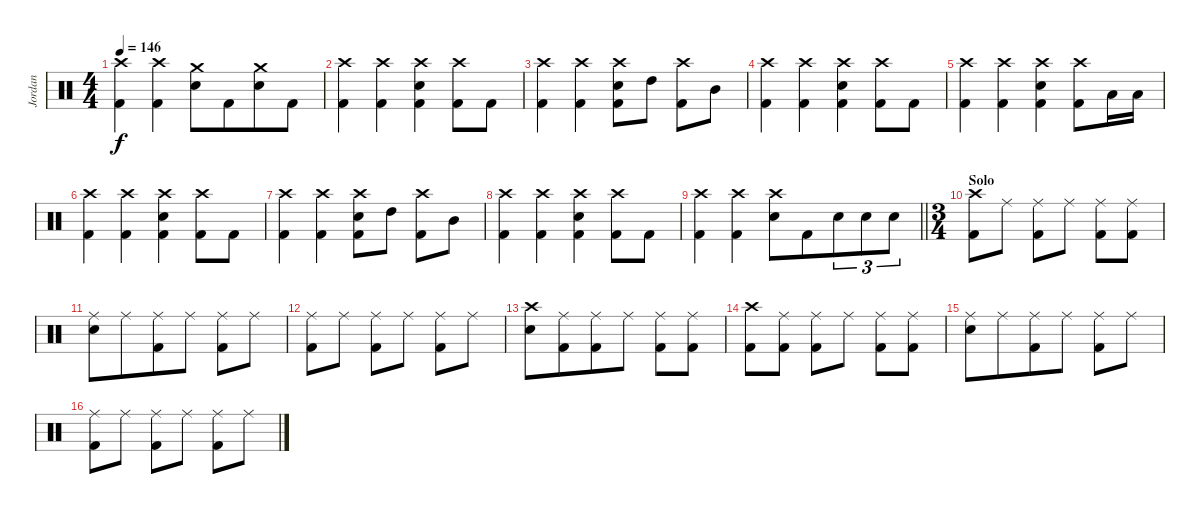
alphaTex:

\track ("Jordan" "Jordan") {instrument percussion}
\staff {score}
\articulation defaults
\ts (4 4)
\tempo 146
\clef neutral
\ks c
("Crash high (hit)" "Kick (hit) 2").4{dy f} ("Crash high (hit)" "Kick (hit) 2").4{beam merge} ("Crash medium (hit)" "Snare (hit) 2").8{beam merge} "Kick (hit) 2".8{beam merge} ("Crash medium (hit)" "Snare (hit) 2").8{beam merge} "Kick (hit) 2".8 |
("Crash high (hit)" "Kick (hit) 2").4 ("Crash high (hit)" "Kick (hit) 2").4{beam merge} ("Crash high (hit)" "Snare (hit) 2" "Kick (hit) 2").4 ("Crash high (hit)" "Kick (hit) 2").8{beam merge} "Kick (hit) 2".8 |
("Crash high (hit)" "Kick (hit) 2").4 ("Crash high (hit)" "Kick (hit) 2").4{beam merge} ("Crash high (hit)" "Snare (hit) 2" "Kick (hit) 2").8 "High Tom (hit)".8 ("Crash high (hit)" "Kick (hit) 2").8{beam merge} "Mid Tom (hit)".8 |
("Crash high (hit)" "Kick (hit) 2").4 ("Crash high (hit)" "Kick (hit) 2").4{beam merge} ("Crash high (hit)" "Snare (hit) 2" "Kick (hit) 2").4 ("Crash high (hit)" "Kick (hit) 2").8{beam merge} "Kick (hit) 2".8 |
("Crash high (hit)" "Kick (hit) 2").4 ("Crash high (hit)" "Kick (hit) 2").4{beam merge} ("Crash high (hit)" "Snare (hit) 2" "Kick (hit) 2").4 ("Crash high (hit)" "Kick (hit) 2").8 "Low Tom (hit)".16 "Low Tom (hit)".16 |
("Crash high (hit)" "Kick (hit) 2").4 ("Crash high (hit)" "Kick (hit) 2").4{beam merge} ("Crash high (hit)" "Snare (hit) 2" "Kick (hit) 2").4 ("Crash high (hit)" "Kick (hit) 2").8{beam merge} "Kick (hit) 2".8 |
("Crash high (hit)" "Kick (hit) 2").4 ("Crash high (hit)" "Kick (hit) 2").4{beam merge} ("Crash high (hit)" "Snare (hit) 2" "Kick (hit) 2").8 "High Tom (hit)".8 ("Crash high (hit)" "Kick (hit) 2").8{beam merge} "Mid Tom (hit)".8 |
("Crash high (hit)" "Kick (hit) 2").4 ("Crash high (hit)" "Kick (hit) 2").4{beam merge} ("Crash high (hit)" "Snare (hit) 2" "Kick (hit) 2").4 ("Crash high (hit)" "Kick (hit) 2").8{beam merge} "Kick (hit) 2".8 |
\barLineRight lightlight
("Crash high (hit)" "Kick (hit) 2").4 ("Crash high (hit)" "Kick (hit) 2").4{beam merge} ("Crash high (hit)" "Snare (hit) 2").8{beam merge} "Kick (hit) 2".8{beam merge} "Snare (hit) 2".8{tu (3 2)} "Snare (hit) 2".8{tu (3 2) beam merge} "Snare (hit) 2".8{tu (3 2)} |
\ts (3 4)
\section ("" "Solo")
("Crash high (hit)" "Kick (hit) 2").8{beam merge} "Ride (middle)".8 ("Ride (middle)" "Kick (hit) 2").8 "Ride (middle)".8 ("Ride (middle)" "Kick (hit) 2").8{beam merge} ("Ride (middle)" "Kick (hit) 2").8 |
("Snare (hit) 2" "Ride (middle)").8{beam merge} "Ride (middle)".8{beam merge} ("Ride (middle)" "Kick (hit) 2").8 "Ride (middle)".8 ("Ride (middle)" "Kick (hit) 2").8{beam merge} "Ride (middle)".8 |
("Ride (middle)" "Kick (hit) 2").8{beam merge} "Ride (middle)".8 ("Ride (middle)" "Kick (hit) 2").8 "Ride (middle)".8 ("Ride (middle)" "Kick (hit) 2").8{beam merge} "Ride (middle)".8 |
("Snare (hit) 2" "Crash high (hit)").8{beam merge} ("Ride (middle)" "Kick (hit) 2").8{beam merge} ("Ride (middle)" "Kick (hit) 2").8 "Ride (middle)".8 ("Ride (middle)" "Kick (hit) 2").8{beam merge} ("Ride (middle)" "Kick (hit) 2").8 |
("Crash high (hit)" "Kick (hit) 2").8{beam merge} ("Ride (middle)" "Kick (hit) 2").8 ("Ride (middle)" "Kick (hit) 2").8 "Ride (middle)".8 ("Ride (middle)" "Kick (hit) 2").8{beam merge} ("Ride (middle)" "Kick (hit) 2").8 |
("Snare (hit) 2" "Ride (middle)").8{beam merge} "Ride (middle)".8{beam merge} ("Ride (middle)" "Kick (hit) 2").8 "Ride (middle)".8 ("Ride (middle)" "Kick (hit) 2").8{beam merge} "Ride (middle)".8 |
("Ride (middle)" "Kick (hit) 2").8{beam merge} "Ride (middle)".8 ("Ride (middle)" "Kick (hit) 2").8 "Ride (middle)".8 ("Ride (middle)" "Kick (hit) 2").8{beam merge} "Ride (middle)".8
